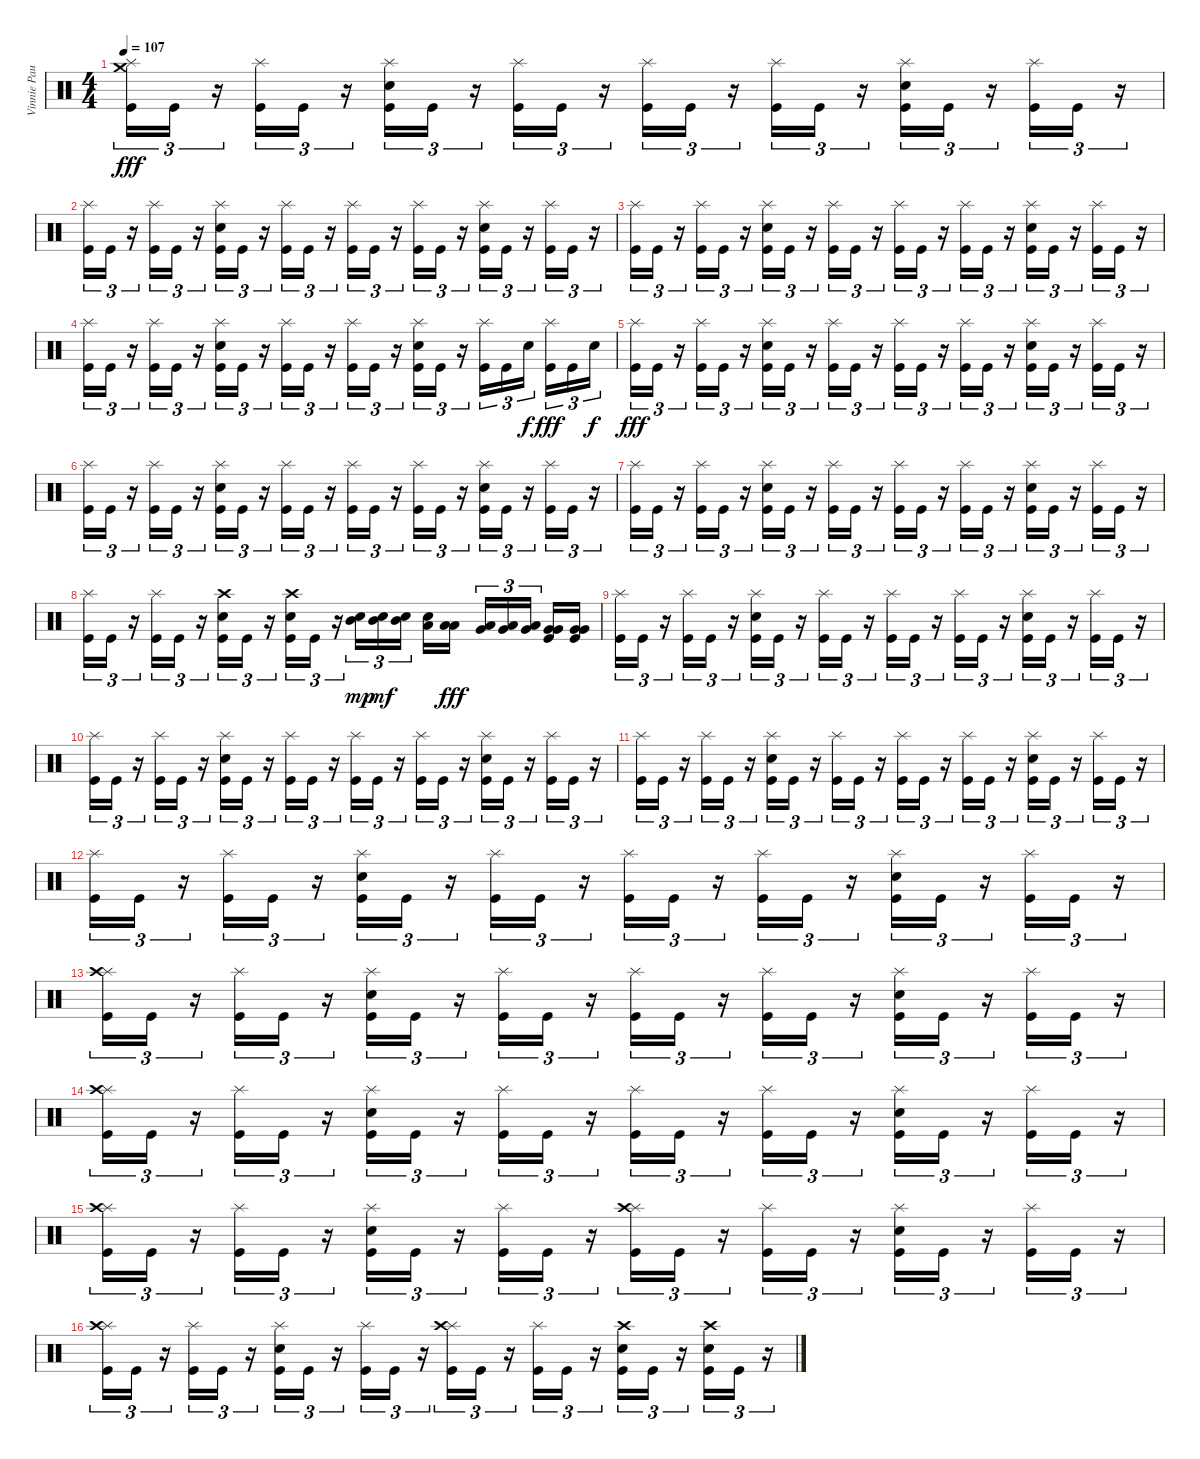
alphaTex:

\track ("Vinnie Paul" "Vinnie Pau") {instrument percussion}
\staff {score}
\articulation defaults
\ts (4 4)
\tempo 107
\clef neutral
\ks c
("Splash (hit)" "Crash medium (hit)" "Kick (hit)").16{tu (3 2) dy fff} "Kick (hit)".16{tu (3 2)} r.16{tu (3 2)} ("Splash (hit)" "Kick (hit)").16{tu (3 2)} "Kick (hit)".16{tu (3 2)} r.16{tu (3 2)} ("Splash (hit)" "Kick (hit)" "Electric Snare (hit)").16{tu (3 2)} "Kick (hit)".16{tu (3 2)} r.16{tu (3 2)} ("Splash (hit)" "Kick (hit)").16{tu (3 2)} "Kick (hit)".16{tu (3 2)} r.16{tu (3 2)} ("Splash (hit)" "Kick (hit)").16{tu (3 2)} "Kick (hit)".16{tu (3 2)} r.16{tu (3 2)} ("Splash (hit)" "Kick (hit)").16{tu (3 2)} "Kick (hit)".16{tu (3 2)} r.16{tu (3 2)} ("Splash (hit)" "Kick (hit)" "Electric Snare (hit)").16{tu (3 2)} "Kick (hit)".16{tu (3 2)} r.16{tu (3 2)} ("Splash (hit)" "Kick (hit)").16{tu (3 2)} "Kick (hit)".16{tu (3 2)} r.16{tu (3 2)} |
("Splash (hit)" "Kick (hit)").16{tu (3 2)} "Kick (hit)".16{tu (3 2)} r.16{tu (3 2)} ("Splash (hit)" "Kick (hit)").16{tu (3 2)} "Kick (hit)".16{tu (3 2)} r.16{tu (3 2)} ("Splash (hit)" "Kick (hit)" "Electric Snare (hit)").16{tu (3 2)} "Kick (hit)".16{tu (3 2)} r.16{tu (3 2)} ("Splash (hit)" "Kick (hit)").16{tu (3 2)} "Kick (hit)".16{tu (3 2)} r.16{tu (3 2)} ("Splash (hit)" "Kick (hit)").16{tu (3 2)} "Kick (hit)".16{tu (3 2)} r.16{tu (3 2)} ("Splash (hit)" "Kick (hit)").16{tu (3 2)} "Kick (hit)".16{tu (3 2)} r.16{tu (3 2)} ("Splash (hit)" "Kick (hit)" "Electric Snare (hit)").16{tu (3 2)} "Kick (hit)".16{tu (3 2)} r.16{tu (3 2)} ("Splash (hit)" "Kick (hit)").16{tu (3 2)} "Kick (hit)".16{tu (3 2)} r.16{tu (3 2)} |
("Splash (hit)" "Kick (hit)").16{tu (3 2)} "Kick (hit)".16{tu (3 2)} r.16{tu (3 2)} ("Splash (hit)" "Kick (hit)").16{tu (3 2)} "Kick (hit)".16{tu (3 2)} r.16{tu (3 2)} ("Splash (hit)" "Kick (hit)" "Electric Snare (hit)").16{tu (3 2)} "Kick (hit)".16{tu (3 2)} r.16{tu (3 2)} ("Splash (hit)" "Kick (hit)").16{tu (3 2)} "Kick (hit)".16{tu (3 2)} r.16{tu (3 2)} ("Splash (hit)" "Kick (hit)").16{tu (3 2)} "Kick (hit)".16{tu (3 2)} r.16{tu (3 2)} ("Splash (hit)" "Kick (hit)").16{tu (3 2)} "Kick (hit)".16{tu (3 2)} r.16{tu (3 2)} ("Splash (hit)" "Kick (hit)" "Electric Snare (hit)").16{tu (3 2)} "Kick (hit)".16{tu (3 2)} r.16{tu (3 2)} ("Splash (hit)" "Kick (hit)").16{tu (3 2)} "Kick (hit)".16{tu (3 2)} r.16{tu (3 2)} |
("Splash (hit)" "Kick (hit)").16{tu (3 2)} "Kick (hit)".16{tu (3 2)} r.16{tu (3 2)} ("Splash (hit)" "Kick (hit)").16{tu (3 2)} "Kick (hit)".16{tu (3 2)} r.16{tu (3 2)} ("Splash (hit)" "Kick (hit)" "Electric Snare (hit)").16{tu (3 2)} "Kick (hit)".16{tu (3 2)} r.16{tu (3 2)} ("Splash (hit)" "Kick (hit)").16{tu (3 2)} "Kick (hit)".16{tu (3 2)} r.16{tu (3 2)} ("Splash (hit)" "Kick (hit)").16{tu (3 2)} "Kick (hit)".16{tu (3 2)} r.16{tu (3 2)} ("Splash (hit)" "Kick (hit)" "Electric Snare (hit)").16{tu (3 2)} "Kick (hit)".16{tu (3 2)} r.16{tu (3 2)} ("Splash (hit)" "Kick (hit)").16{tu (3 2)} "Kick (hit)".16{tu (3 2)} "Electric Snare (hit)".16{tu (3 2) dy f} ("Splash (hit)" "Kick (hit)").16{tu (3 2) dy fff} "Kick (hit)".16{tu (3 2)} "Electric Snare (hit)".16{tu (3 2) dy f} |
("Splash (hit)" "Kick (hit)").16{tu (3 2) dy fff} "Kick (hit)".16{tu (3 2)} r.16{tu (3 2)} ("Splash (hit)" "Kick (hit)").16{tu (3 2)} "Kick (hit)".16{tu (3 2)} r.16{tu (3 2)} ("Splash (hit)" "Kick (hit)" "Electric Snare (hit)").16{tu (3 2)} "Kick (hit)".16{tu (3 2)} r.16{tu (3 2)} ("Splash (hit)" "Kick (hit)").16{tu (3 2)} "Kick (hit)".16{tu (3 2)} r.16{tu (3 2)} ("Splash (hit)" "Kick (hit)").16{tu (3 2)} "Kick (hit)".16{tu (3 2)} r.16{tu (3 2)} ("Splash (hit)" "Kick (hit)").16{tu (3 2)} "Kick (hit)".16{tu (3 2)} r.16{tu (3 2)} ("Splash (hit)" "Kick (hit)" "Electric Snare (hit)").16{tu (3 2)} "Kick (hit)".16{tu (3 2)} r.16{tu (3 2)} ("Splash (hit)" "Kick (hit)").16{tu (3 2)} "Kick (hit)".16{tu (3 2)} r.16{tu (3 2)} |
("Splash (hit)" "Kick (hit)").16{tu (3 2)} "Kick (hit)".16{tu (3 2)} r.16{tu (3 2)} ("Splash (hit)" "Kick (hit)").16{tu (3 2)} "Kick (hit)".16{tu (3 2)} r.16{tu (3 2)} ("Splash (hit)" "Kick (hit)" "Electric Snare (hit)").16{tu (3 2)} "Kick (hit)".16{tu (3 2)} r.16{tu (3 2)} ("Splash (hit)" "Kick (hit)").16{tu (3 2)} "Kick (hit)".16{tu (3 2)} r.16{tu (3 2)} ("Splash (hit)" "Kick (hit)").16{tu (3 2)} "Kick (hit)".16{tu (3 2)} r.16{tu (3 2)} ("Splash (hit)" "Kick (hit)").16{tu (3 2)} "Kick (hit)".16{tu (3 2)} r.16{tu (3 2)} ("Splash (hit)" "Kick (hit)" "Electric Snare (hit)").16{tu (3 2)} "Kick (hit)".16{tu (3 2)} r.16{tu (3 2)} ("Splash (hit)" "Kick (hit)").16{tu (3 2)} "Kick (hit)".16{tu (3 2)} r.16{tu (3 2)} |
("Splash (hit)" "Kick (hit)").16{tu (3 2)} "Kick (hit)".16{tu (3 2)} r.16{tu (3 2)} ("Splash (hit)" "Kick (hit)").16{tu (3 2)} "Kick (hit)".16{tu (3 2)} r.16{tu (3 2)} ("Splash (hit)" "Kick (hit)" "Electric Snare (hit)").16{tu (3 2)} "Kick (hit)".16{tu (3 2)} r.16{tu (3 2)} ("Splash (hit)" "Kick (hit)").16{tu (3 2)} "Kick (hit)".16{tu (3 2)} r.16{tu (3 2)} ("Splash (hit)" "Kick (hit)").16{tu (3 2)} "Kick (hit)".16{tu (3 2)} r.16{tu (3 2)} ("Splash (hit)" "Kick (hit)").16{tu (3 2)} "Kick (hit)".16{tu (3 2)} r.16{tu (3 2)} ("Splash (hit)" "Kick (hit)" "Electric Snare (hit)").16{tu (3 2)} "Kick (hit)".16{tu (3 2)} r.16{tu (3 2)} ("Splash (hit)" "Kick (hit)").16{tu (3 2)} "Kick (hit)".16{tu (3 2)} r.16{tu (3 2)} |
("Splash (hit)" "Kick (hit)").16{tu (3 2)} "Kick (hit)".16{tu (3 2)} r.16{tu (3 2)} ("Splash (hit)" "Kick (hit)").16{tu (3 2)} "Kick (hit)".16{tu (3 2)} r.16{tu (3 2)} ("Crash high (hit)" "Kick (hit)" "Electric Snare (hit)").16{tu (3 2)} "Kick (hit)".16{tu (3 2)} r.16{tu (3 2)} ("Crash high (hit)" "Kick (hit)" "Electric Snare (hit)").16{tu (3 2)} "Kick (hit)".16{tu (3 2)} r.16{tu (3 2)} ("Mid Tom (hit)" "Electric Snare (hit)").16{tu (3 2) dy mp} ("Mid Tom (hit)" "Electric Snare (hit)").16{tu (3 2) dy mf} ("Mid Tom (hit)" "Electric Snare (hit)").16{tu (3 2)} ("Low Tom (hit)" "Electric Snare (hit)").16 ("Low Tom (hit)" "Low Tom (hit)").16{dy fff} ("Low Tom (hit)" "Very Low Tom (hit)").16{tu (3 2)} ("Low Tom (hit)" "Very Low Tom (hit)").16{tu (3 2)} ("Low Tom (hit)" "Very Low Tom (hit)").16{tu (3 2)} ("Kick (hit)" "Very Low Tom (hit)" "Very Low Tom (hit)").16 ("Kick (hit)" "Very Low Tom (hit)" "Very Low Tom (hit)").16 |
("Splash (hit)" "Kick (hit)").16{tu (3 2)} "Kick (hit)".16{tu (3 2)} r.16{tu (3 2)} ("Splash (hit)" "Kick (hit)").16{tu (3 2)} "Kick (hit)".16{tu (3 2)} r.16{tu (3 2)} ("Splash (hit)" "Kick (hit)" "Electric Snare (hit)").16{tu (3 2)} "Kick (hit)".16{tu (3 2)} r.16{tu (3 2)} ("Splash (hit)" "Kick (hit)").16{tu (3 2)} "Kick (hit)".16{tu (3 2)} r.16{tu (3 2)} ("Splash (hit)" "Kick (hit)").16{tu (3 2)} "Kick (hit)".16{tu (3 2)} r.16{tu (3 2)} ("Splash (hit)" "Kick (hit)").16{tu (3 2)} "Kick (hit)".16{tu (3 2)} r.16{tu (3 2)} ("Splash (hit)" "Kick (hit)" "Electric Snare (hit)").16{tu (3 2)} "Kick (hit)".16{tu (3 2)} r.16{tu (3 2)} ("Splash (hit)" "Kick (hit)").16{tu (3 2)} "Kick (hit)".16{tu (3 2)} r.16{tu (3 2)} |
("Splash (hit)" "Kick (hit)").16{tu (3 2)} "Kick (hit)".16{tu (3 2)} r.16{tu (3 2)} ("Splash (hit)" "Kick (hit)").16{tu (3 2)} "Kick (hit)".16{tu (3 2)} r.16{tu (3 2)} ("Splash (hit)" "Kick (hit)" "Electric Snare (hit)").16{tu (3 2)} "Kick (hit)".16{tu (3 2)} r.16{tu (3 2)} ("Splash (hit)" "Kick (hit)").16{tu (3 2)} "Kick (hit)".16{tu (3 2)} r.16{tu (3 2)} ("Splash (hit)" "Kick (hit)").16{tu (3 2)} "Kick (hit)".16{tu (3 2)} r.16{tu (3 2)} ("Splash (hit)" "Kick (hit)").16{tu (3 2)} "Kick (hit)".16{tu (3 2)} r.16{tu (3 2)} ("Splash (hit)" "Kick (hit)" "Electric Snare (hit)").16{tu (3 2)} "Kick (hit)".16{tu (3 2)} r.16{tu (3 2)} ("Splash (hit)" "Kick (hit)").16{tu (3 2)} "Kick (hit)".16{tu (3 2)} r.16{tu (3 2)} |
("Splash (hit)" "Kick (hit)").16{tu (3 2)} "Kick (hit)".16{tu (3 2)} r.16{tu (3 2)} ("Splash (hit)" "Kick (hit)").16{tu (3 2)} "Kick (hit)".16{tu (3 2)} r.16{tu (3 2)} ("Splash (hit)" "Kick (hit)" "Electric Snare (hit)").16{tu (3 2)} "Kick (hit)".16{tu (3 2)} r.16{tu (3 2)} ("Splash (hit)" "Kick (hit)").16{tu (3 2)} "Kick (hit)".16{tu (3 2)} r.16{tu (3 2)} ("Splash (hit)" "Kick (hit)").16{tu (3 2)} "Kick (hit)".16{tu (3 2)} r.16{tu (3 2)} ("Splash (hit)" "Kick (hit)").16{tu (3 2)} "Kick (hit)".16{tu (3 2)} r.16{tu (3 2)} ("Splash (hit)" "Kick (hit)" "Electric Snare (hit)").16{tu (3 2)} "Kick (hit)".16{tu (3 2)} r.16{tu (3 2)} ("Splash (hit)" "Kick (hit)").16{tu (3 2)} "Kick (hit)".16{tu (3 2)} r.16{tu (3 2)} |
("Splash (hit)" "Kick (hit)").16{tu (3 2)} "Kick (hit)".16{tu (3 2)} r.16{tu (3 2)} ("Splash (hit)" "Kick (hit)").16{tu (3 2)} "Kick (hit)".16{tu (3 2)} r.16{tu (3 2)} ("Splash (hit)" "Kick (hit)" "Electric Snare (hit)").16{tu (3 2)} "Kick (hit)".16{tu (3 2)} r.16{tu (3 2)} ("Splash (hit)" "Kick (hit)").16{tu (3 2)} "Kick (hit)".16{tu (3 2)} r.16{tu (3 2)} ("Splash (hit)" "Kick (hit)").16{tu (3 2)} "Kick (hit)".16{tu (3 2)} r.16{tu (3 2)} ("Splash (hit)" "Kick (hit)").16{tu (3 2)} "Kick (hit)".16{tu (3 2)} r.16{tu (3 2)} ("Splash (hit)" "Kick (hit)" "Electric Snare (hit)").16{tu (3 2)} "Kick (hit)".16{tu (3 2)} r.16{tu (3 2)} ("Splash (hit)" "Kick (hit)").16{tu (3 2)} "Kick (hit)".16{tu (3 2)} r.16{tu (3 2)} |
("Splash (hit)" "Crash high (hit)" "Kick (hit)").16{tu (3 2)} "Kick (hit)".16{tu (3 2)} r.16{tu (3 2)} ("Splash (hit)" "Kick (hit)").16{tu (3 2)} "Kick (hit)".16{tu (3 2)} r.16{tu (3 2)} ("Splash (hit)" "Kick (hit)" "Electric Snare (hit)").16{tu (3 2)} "Kick (hit)".16{tu (3 2)} r.16{tu (3 2)} ("Splash (hit)" "Kick (hit)").16{tu (3 2)} "Kick (hit)".16{tu (3 2)} r.16{tu (3 2)} ("Splash (hit)" "Kick (hit)").16{tu (3 2)} "Kick (hit)".16{tu (3 2)} r.16{tu (3 2)} ("Splash (hit)" "Kick (hit)").16{tu (3 2)} "Kick (hit)".16{tu (3 2)} r.16{tu (3 2)} ("Splash (hit)" "Kick (hit)" "Electric Snare (hit)").16{tu (3 2)} "Kick (hit)".16{tu (3 2)} r.16{tu (3 2)} ("Splash (hit)" "Kick (hit)").16{tu (3 2)} "Kick (hit)".16{tu (3 2)} r.16{tu (3 2)} |
("Splash (hit)" "Crash high (hit)" "Kick (hit)").16{tu (3 2)} "Kick (hit)".16{tu (3 2)} r.16{tu (3 2)} ("Splash (hit)" "Kick (hit)").16{tu (3 2)} "Kick (hit)".16{tu (3 2)} r.16{tu (3 2)} ("Splash (hit)" "Kick (hit)" "Electric Snare (hit)").16{tu (3 2)} "Kick (hit)".16{tu (3 2)} r.16{tu (3 2)} ("Splash (hit)" "Kick (hit)").16{tu (3 2)} "Kick (hit)".16{tu (3 2)} r.16{tu (3 2)} ("Splash (hit)" "Kick (hit)").16{tu (3 2)} "Kick (hit)".16{tu (3 2)} r.16{tu (3 2)} ("Splash (hit)" "Kick (hit)").16{tu (3 2)} "Kick (hit)".16{tu (3 2)} r.16{tu (3 2)} ("Splash (hit)" "Kick (hit)" "Electric Snare (hit)").16{tu (3 2)} "Kick (hit)".16{tu (3 2)} r.16{tu (3 2)} ("Splash (hit)" "Kick (hit)").16{tu (3 2)} "Kick (hit)".16{tu (3 2)} r.16{tu (3 2)} |
("Splash (hit)" "Crash high (hit)" "Kick (hit)").16{tu (3 2)} "Kick (hit)".16{tu (3 2)} r.16{tu (3 2)} ("Splash (hit)" "Kick (hit)").16{tu (3 2)} "Kick (hit)".16{tu (3 2)} r.16{tu (3 2)} ("Splash (hit)" "Kick (hit)" "Electric Snare (hit)").16{tu (3 2)} "Kick (hit)".16{tu (3 2)} r.16{tu (3 2)} ("Splash (hit)" "Kick (hit)").16{tu (3 2)} "Kick (hit)".16{tu (3 2)} r.16{tu (3 2)} ("Splash (hit)" "Crash high (hit)" "Kick (hit)").16{tu (3 2)} "Kick (hit)".16{tu (3 2)} r.16{tu (3 2)} ("Splash (hit)" "Kick (hit)").16{tu (3 2)} "Kick (hit)".16{tu (3 2)} r.16{tu (3 2)} ("Splash (hit)" "Kick (hit)" "Electric Snare (hit)").16{tu (3 2)} "Kick (hit)".16{tu (3 2)} r.16{tu (3 2)} ("Splash (hit)" "Kick (hit)").16{tu (3 2)} "Kick (hit)".16{tu (3 2)} r.16{tu (3 2)} |
("Splash (hit)" "Crash high (hit)" "Kick (hit)").16{tu (3 2)} "Kick (hit)".16{tu (3 2)} r.16{tu (3 2)} ("Splash (hit)" "Kick (hit)").16{tu (3 2)} "Kick (hit)".16{tu (3 2)} r.16{tu (3 2)} ("Splash (hit)" "Kick (hit)" "Electric Snare (hit)").16{tu (3 2)} "Kick (hit)".16{tu (3 2)} r.16{tu (3 2)} ("Splash (hit)" "Kick (hit)").16{tu (3 2)} "Kick (hit)".16{tu (3 2)} r.16{tu (3 2)} ("Splash (hit)" "Crash high (hit)" "Kick (hit)").16{tu (3 2)} "Kick (hit)".16{tu (3 2)} r.16{tu (3 2)} ("Splash (hit)" "Kick (hit)").16{tu (3 2)} "Kick (hit)".16{tu (3 2)} r.16{tu (3 2)} ("Crash high (hit)" "Kick (hit)" "Electric Snare (hit)").16{tu (3 2)} "Kick (hit)".16{tu (3 2)} r.16{tu (3 2)} ("Crash high (hit)" "Kick (hit)" "Electric Snare (hit)").16{tu (3 2)} "Kick (hit)".16{tu (3 2)} r.16{tu (3 2)}
